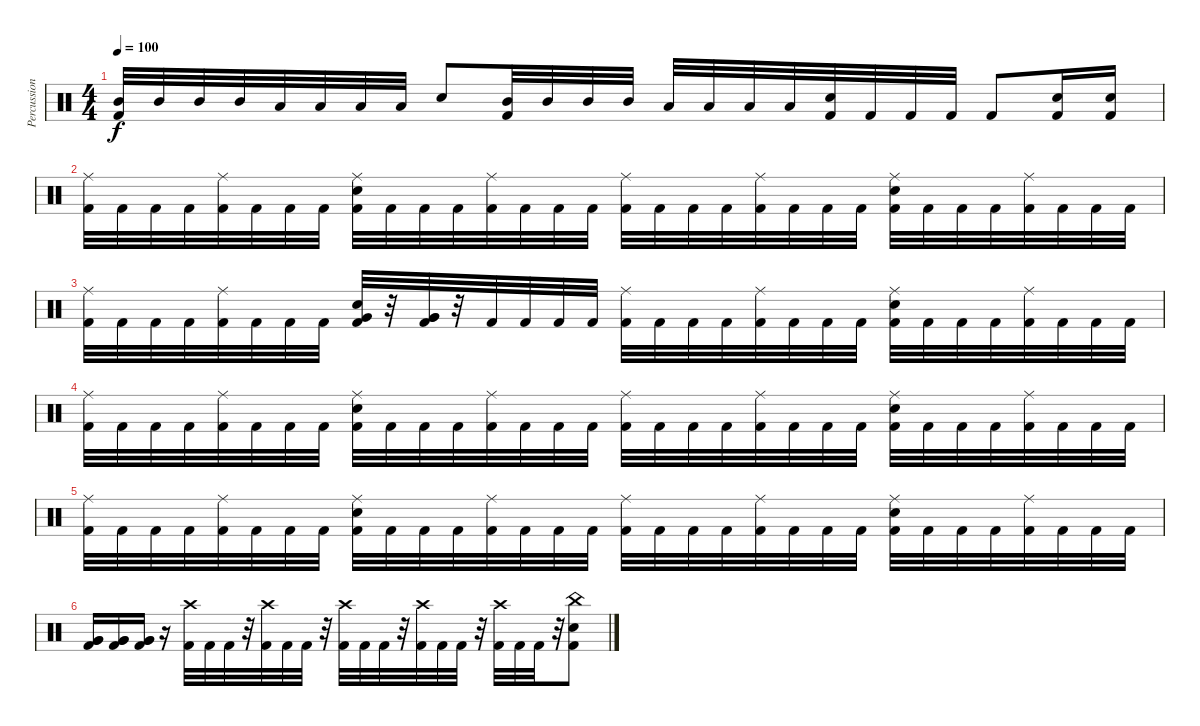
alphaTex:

\track ("Percussions" "Percussion") {instrument percussion}
\staff {score}
\articulation defaults
\ts (4 4)
\tempo 100
\clef neutral
\ks c
("Kick (hit) 2" "Mid Tom (hit)").32{dy f} "Mid Tom (hit)".32 "Mid Tom (hit)".32 "Mid Tom (hit)".32 "Low Tom (hit)".32 "Low Tom (hit)".32 "Low Tom (hit)".32 "Low Tom (hit)".32 "Electric Snare (hit)".8 ("Kick (hit) 2" "Mid Tom (hit)").32 "Mid Tom (hit)".32 "Mid Tom (hit)".32 "Mid Tom (hit)".32 "Low Tom (hit)".32 "Low Tom (hit)".32 "Low Tom (hit)".32 "Low Tom (hit)".32 ("Kick (hit) 2" "Electric Snare (hit)").32 "Kick (hit) 2".32 "Kick (hit) 2".32 "Kick (hit) 2".32 "Kick (hit) 2".8 ("Kick (hit) 2" "Electric Snare (hit)").16 ("Kick (hit) 2" "Electric Snare (hit)").16 |
("Kick (hit) 2" "Ride (middle)").32 "Kick (hit) 2".32 "Kick (hit) 2".32 "Kick (hit) 2".32 ("Kick (hit) 2" "Ride (middle)").32 "Kick (hit) 2".32 "Kick (hit) 2".32 "Kick (hit) 2".32 ("Kick (hit) 2" "Ride (middle)" "Electric Snare (hit)").32 "Kick (hit) 2".32 "Kick (hit) 2".32 "Kick (hit) 2".32 ("Kick (hit) 2" "Ride (middle)").32 "Kick (hit) 2".32 "Kick (hit) 2".32 "Kick (hit) 2".32 ("Kick (hit) 2" "Ride (middle)").32 "Kick (hit) 2".32 "Kick (hit) 2".32 "Kick (hit) 2".32 ("Kick (hit) 2" "Ride (middle)").32 "Kick (hit) 2".32 "Kick (hit) 2".32 "Kick (hit) 2".32 ("Kick (hit) 2" "Ride (middle)" "Electric Snare (hit)").32 "Kick (hit) 2".32 "Kick (hit) 2".32 "Kick (hit) 2".32 ("Kick (hit) 2" "Ride (middle)").32 "Kick (hit) 2".32 "Kick (hit) 2".32 "Kick (hit) 2".32 |
("Kick (hit) 2" "Ride (middle)").32 "Kick (hit) 2".32 "Kick (hit) 2".32 "Kick (hit) 2".32 ("Kick (hit) 2" "Ride (middle)").32 "Kick (hit) 2".32 "Kick (hit) 2".32 "Kick (hit) 2".32 ("Kick (hit) 2" "Very Low Tom (hit)" "Electric Snare (hit)").32 r.32 ("Kick (hit) 2" "Very Low Tom (hit)" "Very Low Tom (hit)").32 r.32 "Kick (hit) 2".32 "Kick (hit) 2".32 "Kick (hit) 2".32 "Kick (hit) 2".32 ("Kick (hit) 2" "Ride (middle)").32 "Kick (hit) 2".32 "Kick (hit) 2".32 "Kick (hit) 2".32 ("Kick (hit) 2" "Ride (middle)").32 "Kick (hit) 2".32 "Kick (hit) 2".32 "Kick (hit) 2".32 ("Kick (hit) 2" "Ride (middle)" "Electric Snare (hit)").32 "Kick (hit) 2".32 "Kick (hit) 2".32 "Kick (hit) 2".32 ("Kick (hit) 2" "Ride (middle)").32 "Kick (hit) 2".32 "Kick (hit) 2".32 "Kick (hit) 2".32 |
("Kick (hit) 2" "Ride (middle)").32 "Kick (hit) 2".32 "Kick (hit) 2".32 "Kick (hit) 2".32 ("Kick (hit) 2" "Ride (middle)").32 "Kick (hit) 2".32 "Kick (hit) 2".32 "Kick (hit) 2".32 ("Kick (hit) 2" "Ride (middle)" "Electric Snare (hit)").32 "Kick (hit) 2".32 "Kick (hit) 2".32 "Kick (hit) 2".32 ("Kick (hit) 2" "Ride (middle)").32 "Kick (hit) 2".32 "Kick (hit) 2".32 "Kick (hit) 2".32 ("Kick (hit) 2" "Ride (middle)").32 "Kick (hit) 2".32 "Kick (hit) 2".32 "Kick (hit) 2".32 ("Kick (hit) 2" "Ride (middle)").32 "Kick (hit) 2".32 "Kick (hit) 2".32 "Kick (hit) 2".32 ("Kick (hit) 2" "Ride (middle)" "Electric Snare (hit)").32 "Kick (hit) 2".32 "Kick (hit) 2".32 "Kick (hit) 2".32 ("Kick (hit) 2" "Ride (middle)").32 "Kick (hit) 2".32 "Kick (hit) 2".32 "Kick (hit) 2".32 |
("Kick (hit) 2" "Ride (middle)").32 "Kick (hit) 2".32 "Kick (hit) 2".32 "Kick (hit) 2".32 ("Kick (hit) 2" "Ride (middle)").32 "Kick (hit) 2".32 "Kick (hit) 2".32 "Kick (hit) 2".32 ("Kick (hit) 2" "Ride (middle)" "Electric Snare (hit)").32 "Kick (hit) 2".32 "Kick (hit) 2".32 "Kick (hit) 2".32 ("Kick (hit) 2" "Ride (middle)").32 "Kick (hit) 2".32 "Kick (hit) 2".32 "Kick (hit) 2".32 ("Kick (hit) 2" "Ride (middle)").32 "Kick (hit) 2".32 "Kick (hit) 2".32 "Kick (hit) 2".32 ("Kick (hit) 2" "Ride (middle)").32 "Kick (hit) 2".32 "Kick (hit) 2".32 "Kick (hit) 2".32 ("Kick (hit) 2" "Ride (middle)" "Electric Snare (hit)").32 "Kick (hit) 2".32 "Kick (hit) 2".32 "Kick (hit) 2".32 ("Kick (hit) 2" "Ride (middle)").32 "Kick (hit) 2".32 "Kick (hit) 2".32 "Kick (hit) 2".32 |
("Kick (hit) 2" "Very Low Tom (hit)" "Very Low Tom (hit)").16 ("Kick (hit) 2" "Very Low Tom (hit)" "Very Low Tom (hit)").16 ("Kick (hit) 2" "Very Low Tom (hit)" "Very Low Tom (hit)").16 r.16 ("Kick (hit) 2" "Crash high (hit)").32 "Kick (hit) 2".32 "Kick (hit) 2".32 r.32 ("Kick (hit) 2" "Crash high (hit)").32 "Kick (hit) 2".32 "Kick (hit) 2".32 r.32 ("Kick (hit) 2" "Crash high (hit)").32 "Kick (hit) 2".32 "Kick (hit) 2".32 r.32 ("Kick (hit) 2" "Crash high (hit)").32 "Kick (hit) 2".32 "Kick (hit) 2".32 r.32 ("Kick (hit) 2" "Crash high (hit)").32 "Kick (hit) 2".32 "Kick (hit) 2".32 r.32 ("Kick (hit) 2" "China (hit)" "Electric Snare (hit)").8
